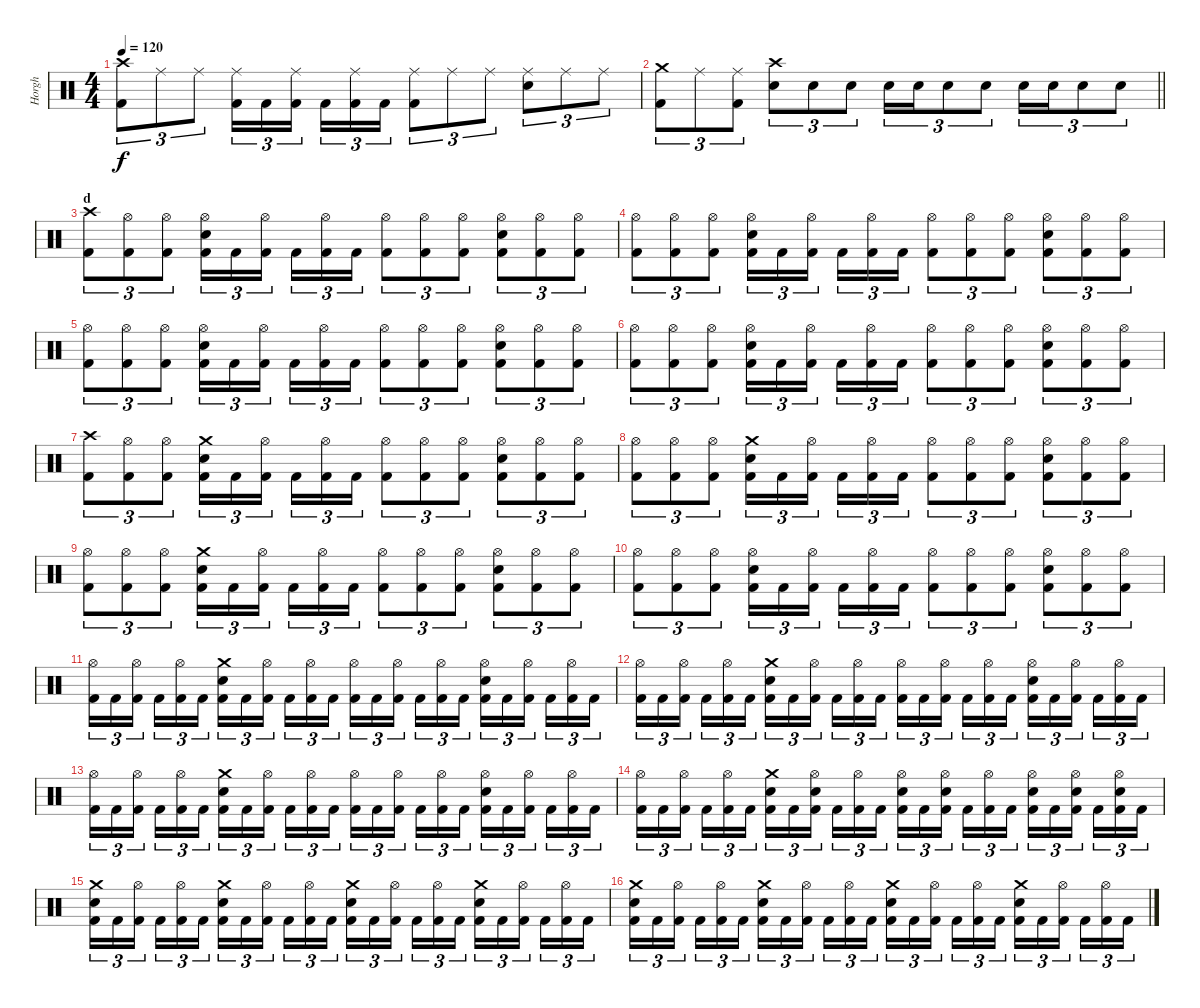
\track ("Horgh" "Horgh") {instrument percussion}
\staff {score}
\articulation defaults
\ts (4 4)
\tempo 120
\clef neutral
\ks c
("Crash high (hit)" "Kick (hit) 2").8{tu (3 2) dy f} "Ride (middle)".8{tu (3 2)} "Ride (middle)".8{tu (3 2)} ("Ride (middle)" "Kick (hit) 2").16{tu (3 2)} "Kick (hit) 2".16{tu (3 2)} ("Ride (middle)" "Kick (hit) 2").16{tu (3 2) beam splitsecondary} "Kick (hit) 2".16{tu (3 2)} ("Ride (middle)" "Kick (hit) 2").16{tu (3 2)} "Kick (hit) 2".16{tu (3 2)} ("Ride (middle)" "Kick (hit) 2").8{tu (3 2)} "Ride (middle)".8{tu (3 2)} "Ride (middle)".8{tu (3 2)} ("Ride (middle)" "Electric Snare (hit)").8{tu (3 2)} "Ride (middle)".8{tu (3 2)} "Ride (middle)".8{tu (3 2)} |
\barLineRight lightlight
("Crash medium (hit)" "Kick (hit) 2").8{tu (3 2)} "Ride (middle)".8{tu (3 2)} ("Ride (middle)" "Kick (hit) 2").8{tu (3 2)} ("Crash high (hit)" "Electric Snare (hit)").8{tu (3 2)} "Electric Snare (hit)".8{tu (3 2)} "Electric Snare (hit)".8{tu (3 2)} "Electric Snare (hit)".16{tu (3 2)} "Electric Snare (hit)".16{tu (3 2)} "Electric Snare (hit)".8{tu (3 2)} "Electric Snare (hit)".8{tu (3 2)} "Electric Snare (hit)".16{tu (3 2)} "Electric Snare (hit)".16{tu (3 2)} "Electric Snare (hit)".8{tu (3 2)} "Electric Snare (hit)".8{tu (3 2)} |
\section ("" "d")
("Crash high (hit)" "Kick (hit) 2").8{tu (3 2)} ("Hi-Hat (open)" "Kick (hit) 2").8{tu (3 2)} ("Hi-Hat (open)" "Kick (hit) 2").8{tu (3 2)} ("Hi-Hat (open)" "Electric Snare (hit)" "Kick (hit) 2").16{tu (3 2)} "Kick (hit) 2".16{tu (3 2)} ("Hi-Hat (open)" "Kick (hit) 2").16{tu (3 2) beam splitsecondary} "Kick (hit) 2".16{tu (3 2)} ("Hi-Hat (open)" "Kick (hit) 2").16{tu (3 2)} "Kick (hit) 2".16{tu (3 2)} ("Hi-Hat (open)" "Kick (hit) 2").8{tu (3 2)} ("Hi-Hat (open)" "Kick (hit) 2").8{tu (3 2)} ("Hi-Hat (open)" "Kick (hit) 2").8{tu (3 2)} ("Hi-Hat (open)" "Electric Snare (hit)" "Kick (hit) 2").8{tu (3 2)} ("Hi-Hat (open)" "Kick (hit) 2").8{tu (3 2)} ("Hi-Hat (open)" "Kick (hit) 2").8{tu (3 2)} |
("Hi-Hat (open)" "Kick (hit) 2").8{tu (3 2)} ("Hi-Hat (open)" "Kick (hit) 2").8{tu (3 2)} ("Hi-Hat (open)" "Kick (hit) 2").8{tu (3 2)} ("Hi-Hat (open)" "Electric Snare (hit)" "Kick (hit) 2").16{tu (3 2)} "Kick (hit) 2".16{tu (3 2)} ("Hi-Hat (open)" "Kick (hit) 2").16{tu (3 2) beam splitsecondary} "Kick (hit) 2".16{tu (3 2)} ("Hi-Hat (open)" "Kick (hit) 2").16{tu (3 2)} "Kick (hit) 2".16{tu (3 2)} ("Hi-Hat (open)" "Kick (hit) 2").8{tu (3 2)} ("Hi-Hat (open)" "Kick (hit) 2").8{tu (3 2)} ("Hi-Hat (open)" "Kick (hit) 2").8{tu (3 2)} ("Hi-Hat (open)" "Electric Snare (hit)" "Kick (hit) 2").8{tu (3 2)} ("Hi-Hat (open)" "Kick (hit) 2").8{tu (3 2)} ("Hi-Hat (open)" "Kick (hit) 2").8{tu (3 2)} |
("Hi-Hat (open)" "Kick (hit) 2").8{tu (3 2)} ("Hi-Hat (open)" "Kick (hit) 2").8{tu (3 2)} ("Hi-Hat (open)" "Kick (hit) 2").8{tu (3 2)} ("Hi-Hat (open)" "Electric Snare (hit)" "Kick (hit) 2").16{tu (3 2)} "Kick (hit) 2".16{tu (3 2)} ("Hi-Hat (open)" "Kick (hit) 2").16{tu (3 2) beam splitsecondary} "Kick (hit) 2".16{tu (3 2)} ("Hi-Hat (open)" "Kick (hit) 2").16{tu (3 2)} "Kick (hit) 2".16{tu (3 2)} ("Hi-Hat (open)" "Kick (hit) 2").8{tu (3 2)} ("Hi-Hat (open)" "Kick (hit) 2").8{tu (3 2)} ("Hi-Hat (open)" "Kick (hit) 2").8{tu (3 2)} ("Hi-Hat (open)" "Electric Snare (hit)" "Kick (hit) 2").8{tu (3 2)} ("Hi-Hat (open)" "Kick (hit) 2").8{tu (3 2)} ("Hi-Hat (open)" "Kick (hit) 2").8{tu (3 2)} |
("Hi-Hat (open)" "Kick (hit) 2").8{tu (3 2)} ("Hi-Hat (open)" "Kick (hit) 2").8{tu (3 2)} ("Hi-Hat (open)" "Kick (hit) 2").8{tu (3 2)} ("Hi-Hat (open)" "Electric Snare (hit)" "Kick (hit) 2").16{tu (3 2)} "Kick (hit) 2".16{tu (3 2)} ("Hi-Hat (open)" "Kick (hit) 2").16{tu (3 2) beam splitsecondary} "Kick (hit) 2".16{tu (3 2)} ("Hi-Hat (open)" "Kick (hit) 2").16{tu (3 2)} "Kick (hit) 2".16{tu (3 2)} ("Hi-Hat (open)" "Kick (hit) 2").8{tu (3 2)} ("Hi-Hat (open)" "Kick (hit) 2").8{tu (3 2)} ("Hi-Hat (open)" "Kick (hit) 2").8{tu (3 2)} ("Hi-Hat (open)" "Electric Snare (hit)" "Kick (hit) 2").8{tu (3 2)} ("Hi-Hat (open)" "Kick (hit) 2").8{tu (3 2)} ("Hi-Hat (open)" "Kick (hit) 2").8{tu (3 2)} |
("Crash high (hit)" "Kick (hit) 2").8{tu (3 2)} ("Hi-Hat (open)" "Kick (hit) 2").8{tu (3 2)} ("Hi-Hat (open)" "Kick (hit) 2").8{tu (3 2)} ("Crash medium (hit)" "Electric Snare (hit)" "Kick (hit) 2").16{tu (3 2)} "Kick (hit) 2".16{tu (3 2)} ("Hi-Hat (open)" "Kick (hit) 2").16{tu (3 2) beam splitsecondary} "Kick (hit) 2".16{tu (3 2)} ("Hi-Hat (open)" "Kick (hit) 2").16{tu (3 2)} "Kick (hit) 2".16{tu (3 2)} ("Hi-Hat (open)" "Kick (hit) 2").8{tu (3 2)} ("Hi-Hat (open)" "Kick (hit) 2").8{tu (3 2)} ("Hi-Hat (open)" "Kick (hit) 2").8{tu (3 2)} ("Hi-Hat (open)" "Electric Snare (hit)" "Kick (hit) 2").8{tu (3 2)} ("Hi-Hat (open)" "Kick (hit) 2").8{tu (3 2)} ("Hi-Hat (open)" "Kick (hit) 2").8{tu (3 2)} |
("Hi-Hat (open)" "Kick (hit) 2").8{tu (3 2)} ("Hi-Hat (open)" "Kick (hit) 2").8{tu (3 2)} ("Hi-Hat (open)" "Kick (hit) 2").8{tu (3 2)} ("Crash medium (hit)" "Electric Snare (hit)" "Kick (hit) 2").16{tu (3 2)} "Kick (hit) 2".16{tu (3 2)} ("Hi-Hat (open)" "Kick (hit) 2").16{tu (3 2) beam splitsecondary} "Kick (hit) 2".16{tu (3 2)} ("Hi-Hat (open)" "Kick (hit) 2").16{tu (3 2)} "Kick (hit) 2".16{tu (3 2)} ("Hi-Hat (open)" "Kick (hit) 2").8{tu (3 2)} ("Hi-Hat (open)" "Kick (hit) 2").8{tu (3 2)} ("Hi-Hat (open)" "Kick (hit) 2").8{tu (3 2)} ("Hi-Hat (open)" "Electric Snare (hit)" "Kick (hit) 2").8{tu (3 2)} ("Hi-Hat (open)" "Kick (hit) 2").8{tu (3 2)} ("Hi-Hat (open)" "Kick (hit) 2").8{tu (3 2)} |
("Hi-Hat (open)" "Kick (hit) 2").8{tu (3 2)} ("Hi-Hat (open)" "Kick (hit) 2").8{tu (3 2)} ("Hi-Hat (open)" "Kick (hit) 2").8{tu (3 2)} ("Crash medium (hit)" "Electric Snare (hit)" "Kick (hit) 2").16{tu (3 2)} "Kick (hit) 2".16{tu (3 2)} ("Hi-Hat (open)" "Kick (hit) 2").16{tu (3 2) beam splitsecondary} "Kick (hit) 2".16{tu (3 2)} ("Hi-Hat (open)" "Kick (hit) 2").16{tu (3 2)} "Kick (hit) 2".16{tu (3 2)} ("Hi-Hat (open)" "Kick (hit) 2").8{tu (3 2)} ("Hi-Hat (open)" "Kick (hit) 2").8{tu (3 2)} ("Hi-Hat (open)" "Kick (hit) 2").8{tu (3 2)} ("Hi-Hat (open)" "Electric Snare (hit)" "Kick (hit) 2").8{tu (3 2)} ("Hi-Hat (open)" "Kick (hit) 2").8{tu (3 2)} ("Hi-Hat (open)" "Kick (hit) 2").8{tu (3 2)} |
("Hi-Hat (open)" "Kick (hit) 2").8{tu (3 2)} ("Hi-Hat (open)" "Kick (hit) 2").8{tu (3 2)} ("Hi-Hat (open)" "Kick (hit) 2").8{tu (3 2)} ("Hi-Hat (open)" "Electric Snare (hit)" "Kick (hit) 2").16{tu (3 2)} "Kick (hit) 2".16{tu (3 2)} ("Hi-Hat (open)" "Kick (hit) 2").16{tu (3 2) beam splitsecondary} "Kick (hit) 2".16{tu (3 2)} ("Hi-Hat (open)" "Kick (hit) 2").16{tu (3 2)} "Kick (hit) 2".16{tu (3 2)} ("Hi-Hat (open)" "Kick (hit) 2").8{tu (3 2)} ("Hi-Hat (open)" "Kick (hit) 2").8{tu (3 2)} ("Hi-Hat (open)" "Kick (hit) 2").8{tu (3 2)} ("Hi-Hat (open)" "Electric Snare (hit)" "Kick (hit) 2").8{tu (3 2)} ("Hi-Hat (open)" "Kick (hit) 2").8{tu (3 2)} ("Hi-Hat (open)" "Kick (hit) 2").8{tu (3 2)} |
("Hi-Hat (open)" "Kick (hit) 2").16{tu (3 2)} "Kick (hit) 2".16{tu (3 2)} ("Hi-Hat (open)" "Kick (hit) 2").16{tu (3 2) beam splitsecondary} "Kick (hit) 2".16{tu (3 2)} ("Hi-Hat (open)" "Kick (hit) 2").16{tu (3 2)} "Kick (hit) 2".16{tu (3 2)} ("Crash medium (hit)" "Electric Snare (hit)" "Kick (hit) 2").16{tu (3 2)} "Kick (hit) 2".16{tu (3 2)} ("Hi-Hat (open)" "Kick (hit) 2").16{tu (3 2) beam splitsecondary} "Kick (hit) 2".16{tu (3 2)} ("Hi-Hat (open)" "Kick (hit) 2").16{tu (3 2)} "Kick (hit) 2".16{tu (3 2)} ("Hi-Hat (open)" "Kick (hit) 2").16{tu (3 2)} "Kick (hit) 2".16{tu (3 2)} ("Hi-Hat (open)" "Kick (hit) 2").16{tu (3 2) beam splitsecondary} "Kick (hit) 2".16{tu (3 2)} ("Hi-Hat (open)" "Kick (hit) 2").16{tu (3 2)} "Kick (hit) 2".16{tu (3 2)} ("Hi-Hat (open)" "Electric Snare (hit)" "Kick (hit) 2").16{tu (3 2)} "Kick (hit) 2".16{tu (3 2)} ("Hi-Hat (open)" "Kick (hit) 2").16{tu (3 2) beam splitsecondary} "Kick (hit) 2".16{tu (3 2)} ("Hi-Hat (open)" "Kick (hit) 2").16{tu (3 2)} "Kick (hit) 2".16{tu (3 2)} |
("Hi-Hat (open)" "Kick (hit) 2").16{tu (3 2)} "Kick (hit) 2".16{tu (3 2)} ("Hi-Hat (open)" "Kick (hit) 2").16{tu (3 2) beam splitsecondary} "Kick (hit) 2".16{tu (3 2)} ("Hi-Hat (open)" "Kick (hit) 2").16{tu (3 2)} "Kick (hit) 2".16{tu (3 2)} ("Crash medium (hit)" "Electric Snare (hit)" "Kick (hit) 2").16{tu (3 2)} "Kick (hit) 2".16{tu (3 2)} ("Hi-Hat (open)" "Kick (hit) 2").16{tu (3 2) beam splitsecondary} "Kick (hit) 2".16{tu (3 2)} ("Hi-Hat (open)" "Kick (hit) 2").16{tu (3 2)} "Kick (hit) 2".16{tu (3 2)} ("Hi-Hat (open)" "Kick (hit) 2").16{tu (3 2)} "Kick (hit) 2".16{tu (3 2)} ("Hi-Hat (open)" "Kick (hit) 2").16{tu (3 2) beam splitsecondary} "Kick (hit) 2".16{tu (3 2)} ("Hi-Hat (open)" "Kick (hit) 2").16{tu (3 2)} "Kick (hit) 2".16{tu (3 2)} ("Hi-Hat (open)" "Electric Snare (hit)" "Kick (hit) 2").16{tu (3 2)} "Kick (hit) 2".16{tu (3 2)} ("Hi-Hat (open)" "Kick (hit) 2").16{tu (3 2) beam splitsecondary} "Kick (hit) 2".16{tu (3 2)} ("Hi-Hat (open)" "Kick (hit) 2").16{tu (3 2)} "Kick (hit) 2".16{tu (3 2)} |
("Hi-Hat (open)" "Kick (hit) 2").16{tu (3 2)} "Kick (hit) 2".16{tu (3 2)} ("Hi-Hat (open)" "Kick (hit) 2").16{tu (3 2) beam splitsecondary} "Kick (hit) 2".16{tu (3 2)} ("Hi-Hat (open)" "Kick (hit) 2").16{tu (3 2)} "Kick (hit) 2".16{tu (3 2)} ("Crash medium (hit)" "Electric Snare (hit)" "Kick (hit) 2").16{tu (3 2)} "Kick (hit) 2".16{tu (3 2)} ("Hi-Hat (open)" "Kick (hit) 2").16{tu (3 2) beam splitsecondary} "Kick (hit) 2".16{tu (3 2)} ("Hi-Hat (open)" "Kick (hit) 2").16{tu (3 2)} "Kick (hit) 2".16{tu (3 2)} ("Hi-Hat (open)" "Kick (hit) 2").16{tu (3 2)} "Kick (hit) 2".16{tu (3 2)} ("Hi-Hat (open)" "Kick (hit) 2").16{tu (3 2) beam splitsecondary} "Kick (hit) 2".16{tu (3 2)} ("Hi-Hat (open)" "Kick (hit) 2").16{tu (3 2)} "Kick (hit) 2".16{tu (3 2)} ("Hi-Hat (open)" "Electric Snare (hit)" "Kick (hit) 2").16{tu (3 2)} "Kick (hit) 2".16{tu (3 2)} ("Hi-Hat (open)" "Kick (hit) 2").16{tu (3 2) beam splitsecondary} "Kick (hit) 2".16{tu (3 2)} ("Hi-Hat (open)" "Kick (hit) 2").16{tu (3 2)} "Kick (hit) 2".16{tu (3 2)} |
("Hi-Hat (open)" "Kick (hit) 2").16{tu (3 2)} "Kick (hit) 2".16{tu (3 2)} ("Hi-Hat (open)" "Kick (hit) 2").16{tu (3 2) beam splitsecondary} "Kick (hit) 2".16{tu (3 2)} ("Hi-Hat (open)" "Kick (hit) 2").16{tu (3 2)} "Kick (hit) 2".16{tu (3 2)} ("Crash medium (hit)" "Electric Snare (hit)" "Kick (hit) 2").16{tu (3 2)} "Kick (hit) 2".16{tu (3 2)} ("Hi-Hat (open)" "Electric Snare (hit)" "Kick (hit) 2").16{tu (3 2) beam splitsecondary} "Kick (hit) 2".16{tu (3 2)} ("Hi-Hat (open)" "Kick (hit) 2").16{tu (3 2)} "Kick (hit) 2".16{tu (3 2)} ("Hi-Hat (open)" "Electric Snare (hit)" "Kick (hit) 2").16{tu (3 2)} "Kick (hit) 2".16{tu (3 2)} ("Hi-Hat (open)" "Electric Snare (hit)" "Kick (hit) 2").16{tu (3 2) beam splitsecondary} "Kick (hit) 2".16{tu (3 2)} ("Hi-Hat (open)" "Kick (hit) 2").16{tu (3 2)} "Kick (hit) 2".16{tu (3 2)} ("Hi-Hat (open)" "Electric Snare (hit)" "Kick (hit) 2").16{tu (3 2)} "Kick (hit) 2".16{tu (3 2)} ("Hi-Hat (open)" "Electric Snare (hit)" "Kick (hit) 2").16{tu (3 2) beam splitsecondary} "Kick (hit) 2".16{tu (3 2)} ("Hi-Hat (open)" "Electric Snare (hit)" "Kick (hit) 2").16{tu (3 2)} "Kick (hit) 2".16{tu (3 2)} |
("Crash medium (hit)" "Electric Snare (hit)" "Kick (hit) 2").16{tu (3 2)} "Kick (hit) 2".16{tu (3 2)} ("Hi-Hat (open)" "Kick (hit) 2").16{tu (3 2) beam splitsecondary} "Kick (hit) 2".16{tu (3 2)} ("Hi-Hat (open)" "Kick (hit) 2").16{tu (3 2)} "Kick (hit) 2".16{tu (3 2)} ("Crash medium (hit)" "Electric Snare (hit)" "Kick (hit) 2").16{tu (3 2)} "Kick (hit) 2".16{tu (3 2)} ("Hi-Hat (open)" "Kick (hit) 2").16{tu (3 2) beam splitsecondary} "Kick (hit) 2".16{tu (3 2)} ("Hi-Hat (open)" "Kick (hit) 2").16{tu (3 2)} "Kick (hit) 2".16{tu (3 2)} ("Crash medium (hit)" "Electric Snare (hit)" "Kick (hit) 2").16{tu (3 2)} "Kick (hit) 2".16{tu (3 2)} ("Hi-Hat (open)" "Kick (hit) 2").16{tu (3 2) beam splitsecondary} "Kick (hit) 2".16{tu (3 2)} ("Hi-Hat (open)" "Kick (hit) 2").16{tu (3 2)} "Kick (hit) 2".16{tu (3 2)} ("Crash medium (hit)" "Electric Snare (hit)" "Kick (hit) 2").16{tu (3 2)} "Kick (hit) 2".16{tu (3 2)} ("Hi-Hat (open)" "Kick (hit) 2").16{tu (3 2) beam splitsecondary} "Kick (hit) 2".16{tu (3 2)} ("Hi-Hat (open)" "Kick (hit) 2").16{tu (3 2)} "Kick (hit) 2".16{tu (3 2)} |
("Crash medium (hit)" "Electric Snare (hit)" "Kick (hit) 2").16{tu (3 2)} "Kick (hit) 2".16{tu (3 2)} ("Hi-Hat (open)" "Kick (hit) 2").16{tu (3 2) beam splitsecondary} "Kick (hit) 2".16{tu (3 2)} ("Hi-Hat (open)" "Kick (hit) 2").16{tu (3 2)} "Kick (hit) 2".16{tu (3 2)} ("Crash medium (hit)" "Electric Snare (hit)" "Kick (hit) 2").16{tu (3 2)} "Kick (hit) 2".16{tu (3 2)} ("Hi-Hat (open)" "Kick (hit) 2").16{tu (3 2) beam splitsecondary} "Kick (hit) 2".16{tu (3 2)} ("Hi-Hat (open)" "Kick (hit) 2").16{tu (3 2)} "Kick (hit) 2".16{tu (3 2)} ("Crash medium (hit)" "Electric Snare (hit)" "Kick (hit) 2").16{tu (3 2)} "Kick (hit) 2".16{tu (3 2)} ("Hi-Hat (open)" "Kick (hit) 2").16{tu (3 2) beam splitsecondary} "Kick (hit) 2".16{tu (3 2)} ("Hi-Hat (open)" "Kick (hit) 2").16{tu (3 2)} "Kick (hit) 2".16{tu (3 2)} ("Crash medium (hit)" "Electric Snare (hit)" "Kick (hit) 2").16{tu (3 2)} "Kick (hit) 2".16{tu (3 2)} ("Hi-Hat (open)" "Kick (hit) 2").16{tu (3 2) beam splitsecondary} "Kick (hit) 2".16{tu (3 2)} ("Hi-Hat (open)" "Kick (hit) 2").16{tu (3 2)} "Kick (hit) 2".16{tu (3 2)}
